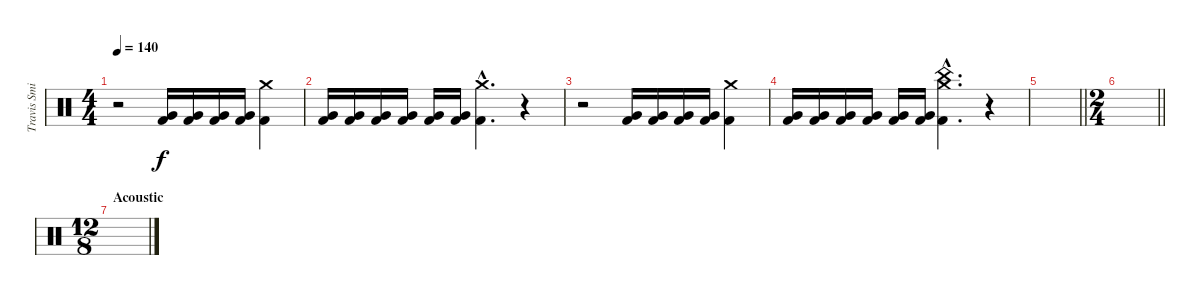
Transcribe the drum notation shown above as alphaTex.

\track ("Travis Smith" "Travis Smi") {instrument percussion}
\staff {score}
\articulation defaults
\ts (4 4)
\tempo 140
\clef neutral
\ks c
r.2{dy f} ("Very Low Tom (hit)" "Kick (hit) 2").16 ("Very Low Tom (hit)" "Kick (hit) 2").16 ("Very Low Tom (hit)" "Kick (hit) 2").16 ("Very Low Tom (hit)" "Kick (hit) 2").16 ("Crash medium (hit)" "Kick (hit) 2").4 |
("Very Low Tom (hit)" "Kick (hit) 2").16 ("Very Low Tom (hit)" "Kick (hit) 2").16 ("Very Low Tom (hit)" "Kick (hit) 2").16 ("Very Low Tom (hit)" "Kick (hit) 2").16 ("Very Low Tom (hit)" "Kick (hit) 2").16 ("Very Low Tom (hit)" "Kick (hit) 2").16 ("Crash medium (hit)"{hac} "Kick (hit) 2"{hac}).4{d} r.4 |
r.2 ("Very Low Tom (hit)" "Kick (hit) 2").16 ("Very Low Tom (hit)" "Kick (hit) 2").16 ("Very Low Tom (hit)" "Kick (hit) 2").16 ("Very Low Tom (hit)" "Kick (hit) 2").16 ("Crash medium (hit)" "Kick (hit) 2").4 |
("Very Low Tom (hit)" "Kick (hit) 2").16 ("Very Low Tom (hit)" "Kick (hit) 2").16 ("Very Low Tom (hit)" "Kick (hit) 2").16 ("Very Low Tom (hit)" "Kick (hit) 2").16 ("Very Low Tom (hit)" "Kick (hit) 2").16 ("Very Low Tom (hit)" "Kick (hit) 2").16 ("China (hit)"{hac} "Crash medium (hit)"{hac} "Kick (hit) 2"{hac}).4{d} r.4 |
\barLineRight lightlight
|
\ts (2 4)
\barLineRight lightlight
|
\ts (12 8)
\section ("" "Acoustic")
